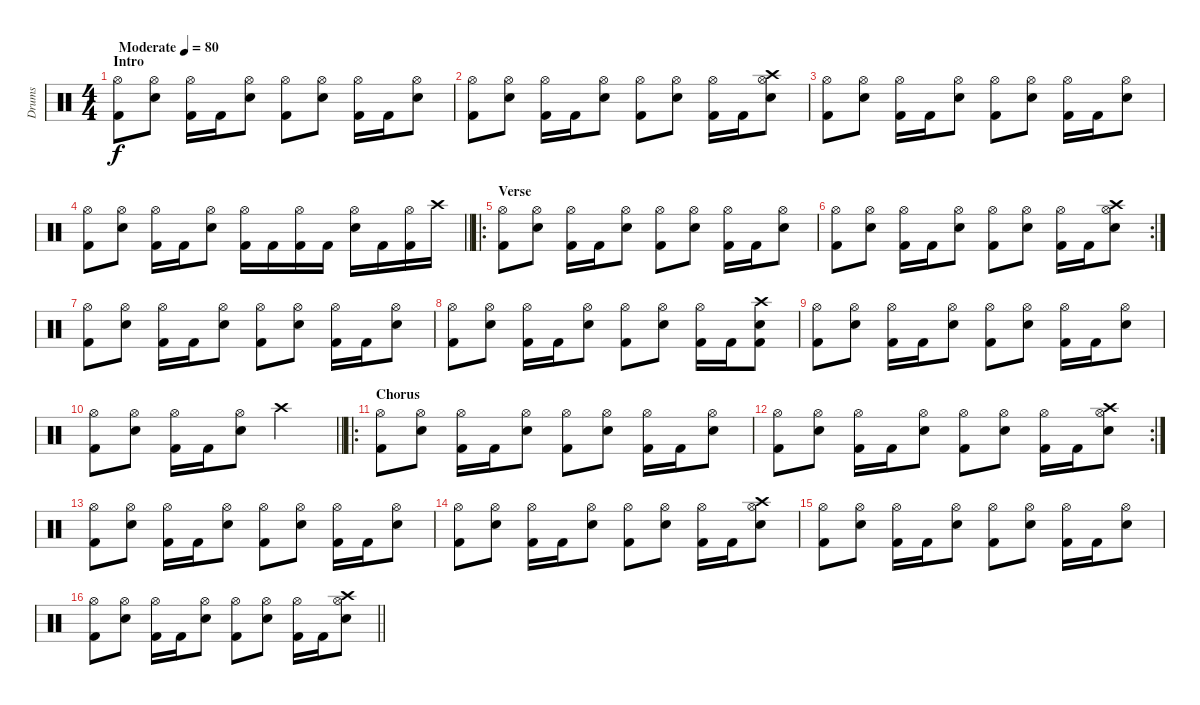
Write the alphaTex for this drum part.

\track ("Drums" "Drums") {instrument percussion}
\staff {score}
\articulation defaults
\ts (4 4)
\section ("" "Intro")
\tempo (80 "Moderate")
\clef neutral
\ks c
("Kick (hit) 2" "Hi-Hat (open)").8{dy f} ("Snare (hit) 2" "Hi-Hat (open)").8 ("Kick (hit) 2" "Hi-Hat (open)").16 "Kick (hit) 2".16 ("Snare (hit) 2" "Hi-Hat (open)").8 ("Kick (hit) 2" "Hi-Hat (open)").8 ("Snare (hit) 2" "Hi-Hat (open)").8 ("Kick (hit) 2" "Hi-Hat (open)").16 "Kick (hit) 2".16 ("Snare (hit) 2" "Hi-Hat (open)").8 |
("Kick (hit) 2" "Hi-Hat (open)").8 ("Snare (hit) 2" "Hi-Hat (open)").8 ("Kick (hit) 2" "Hi-Hat (open)").16 "Kick (hit) 2".16 ("Snare (hit) 2" "Hi-Hat (open)").8 ("Kick (hit) 2" "Hi-Hat (open)").8 ("Snare (hit) 2" "Hi-Hat (open)").8 ("Kick (hit) 2" "Hi-Hat (open)").16 "Kick (hit) 2".16 ("Snare (hit) 2" "Hi-Hat (open)" "Crash high (hit)").8 |
("Kick (hit) 2" "Hi-Hat (open)").8 ("Snare (hit) 2" "Hi-Hat (open)").8 ("Kick (hit) 2" "Hi-Hat (open)").16 "Kick (hit) 2".16 ("Snare (hit) 2" "Hi-Hat (open)").8 ("Kick (hit) 2" "Hi-Hat (open)").8 ("Snare (hit) 2" "Hi-Hat (open)").8 ("Kick (hit) 2" "Hi-Hat (open)").16 "Kick (hit) 2".16 ("Snare (hit) 2" "Hi-Hat (open)").8 |
\barLineRight lightlight
("Kick (hit) 2" "Hi-Hat (open)").8 ("Snare (hit) 2" "Hi-Hat (open)").8 ("Kick (hit) 2" "Hi-Hat (open)").16 "Kick (hit) 2".16 ("Snare (hit) 2" "Hi-Hat (open)").8 ("Kick (hit) 2" "Hi-Hat (open)").16 "Kick (hit) 2".16 ("Kick (hit) 2" "Hi-Hat (open)").16 "Kick (hit) 2".16 ("Snare (hit) 2" "Hi-Hat (open)").16 "Kick (hit) 2".16 ("Kick (hit) 2" "Hi-Hat (open)").16 "Crash high (hit)".16 |
\ro
\section ("" "Verse")
("Kick (hit) 2" "Hi-Hat (open)").8 ("Snare (hit) 2" "Hi-Hat (open)").8 ("Kick (hit) 2" "Hi-Hat (open)").16 "Kick (hit) 2".16 ("Snare (hit) 2" "Hi-Hat (open)").8 ("Kick (hit) 2" "Hi-Hat (open)").8 ("Snare (hit) 2" "Hi-Hat (open)").8 ("Kick (hit) 2" "Hi-Hat (open)").16 "Kick (hit) 2".16 ("Snare (hit) 2" "Hi-Hat (open)").8 |
\rc 2
("Kick (hit) 2" "Hi-Hat (open)").8 ("Snare (hit) 2" "Hi-Hat (open)").8 ("Kick (hit) 2" "Hi-Hat (open)").16 "Kick (hit) 2".16 ("Snare (hit) 2" "Hi-Hat (open)").8 ("Kick (hit) 2" "Hi-Hat (open)").8 ("Snare (hit) 2" "Hi-Hat (open)").8 ("Kick (hit) 2" "Hi-Hat (open)").16 "Kick (hit) 2".16 ("Snare (hit) 2" "Hi-Hat (open)" "Crash high (hit)").8 |
("Kick (hit) 2" "Hi-Hat (open)").8 ("Snare (hit) 2" "Hi-Hat (open)").8 ("Kick (hit) 2" "Hi-Hat (open)").16 "Kick (hit) 2".16 ("Snare (hit) 2" "Hi-Hat (open)").8 ("Kick (hit) 2" "Hi-Hat (open)").8 ("Snare (hit) 2" "Hi-Hat (open)").8 ("Kick (hit) 2" "Hi-Hat (open)").16 "Kick (hit) 2".16 ("Snare (hit) 2" "Hi-Hat (open)").8 |
("Kick (hit) 2" "Hi-Hat (open)").8 ("Snare (hit) 2" "Hi-Hat (open)").8 ("Kick (hit) 2" "Hi-Hat (open)").16 "Kick (hit) 2".16 ("Snare (hit) 2" "Hi-Hat (open)").8 ("Kick (hit) 2" "Hi-Hat (open)").8 ("Snare (hit) 2" "Hi-Hat (open)").8 ("Kick (hit) 2" "Hi-Hat (open)").16 "Kick (hit) 2".16 ("Snare (hit) 2" "Kick (hit) 2" "Crash high (hit)").8 |
("Kick (hit) 2" "Hi-Hat (open)").8 ("Snare (hit) 2" "Hi-Hat (open)").8 ("Kick (hit) 2" "Hi-Hat (open)").16 "Kick (hit) 2".16 ("Snare (hit) 2" "Hi-Hat (open)").8 ("Kick (hit) 2" "Hi-Hat (open)").8 ("Snare (hit) 2" "Hi-Hat (open)").8 ("Kick (hit) 2" "Hi-Hat (open)").16 "Kick (hit) 2".16 ("Snare (hit) 2" "Hi-Hat (open)").8 |
\barLineRight lightlight
("Kick (hit) 2" "Hi-Hat (open)").8 ("Snare (hit) 2" "Hi-Hat (open)").8 ("Kick (hit) 2" "Hi-Hat (open)").16 "Kick (hit) 2".16 ("Snare (hit) 2" "Hi-Hat (open)").8 "Crash high (hit)".2 |
\ro
\section ("" "Chorus")
("Kick (hit) 2" "Hi-Hat (open)").8 ("Snare (hit) 2" "Hi-Hat (open)").8 ("Kick (hit) 2" "Hi-Hat (open)").16 "Kick (hit) 2".16 ("Snare (hit) 2" "Hi-Hat (open)").8 ("Kick (hit) 2" "Hi-Hat (open)").8 ("Snare (hit) 2" "Hi-Hat (open)").8 ("Kick (hit) 2" "Hi-Hat (open)").16 "Kick (hit) 2".16 ("Snare (hit) 2" "Hi-Hat (open)").8 |
\rc 2
("Kick (hit) 2" "Hi-Hat (open)").8 ("Snare (hit) 2" "Hi-Hat (open)").8 ("Kick (hit) 2" "Hi-Hat (open)").16 "Kick (hit) 2".16 ("Snare (hit) 2" "Hi-Hat (open)").8 ("Kick (hit) 2" "Hi-Hat (open)").8 ("Snare (hit) 2" "Hi-Hat (open)").8 ("Kick (hit) 2" "Hi-Hat (open)").16 "Kick (hit) 2".16 ("Snare (hit) 2" "Hi-Hat (open)" "Crash high (hit)").8 |
("Kick (hit) 2" "Hi-Hat (open)").8 ("Snare (hit) 2" "Hi-Hat (open)").8 ("Kick (hit) 2" "Hi-Hat (open)").16 "Kick (hit) 2".16 ("Snare (hit) 2" "Hi-Hat (open)").8 ("Kick (hit) 2" "Hi-Hat (open)").8 ("Snare (hit) 2" "Hi-Hat (open)").8 ("Kick (hit) 2" "Hi-Hat (open)").16 "Kick (hit) 2".16 ("Snare (hit) 2" "Hi-Hat (open)").8 |
("Kick (hit) 2" "Hi-Hat (open)").8 ("Snare (hit) 2" "Hi-Hat (open)").8 ("Kick (hit) 2" "Hi-Hat (open)").16 "Kick (hit) 2".16 ("Snare (hit) 2" "Hi-Hat (open)").8 ("Kick (hit) 2" "Hi-Hat (open)").8 ("Snare (hit) 2" "Hi-Hat (open)").8 ("Kick (hit) 2" "Hi-Hat (open)").16 "Kick (hit) 2".16 ("Snare (hit) 2" "Hi-Hat (open)" "Crash high (hit)").8 |
("Kick (hit) 2" "Hi-Hat (open)").8 ("Snare (hit) 2" "Hi-Hat (open)").8 ("Kick (hit) 2" "Hi-Hat (open)").16 "Kick (hit) 2".16 ("Snare (hit) 2" "Hi-Hat (open)").8 ("Kick (hit) 2" "Hi-Hat (open)").8 ("Snare (hit) 2" "Hi-Hat (open)").8 ("Kick (hit) 2" "Hi-Hat (open)").16 "Kick (hit) 2".16 ("Snare (hit) 2" "Hi-Hat (open)").8 |
\barLineRight lightlight
("Kick (hit) 2" "Hi-Hat (open)").8 ("Snare (hit) 2" "Hi-Hat (open)").8 ("Kick (hit) 2" "Hi-Hat (open)").16 "Kick (hit) 2".16 ("Snare (hit) 2" "Hi-Hat (open)").8 ("Kick (hit) 2" "Hi-Hat (open)").8 ("Snare (hit) 2" "Hi-Hat (open)").8 ("Kick (hit) 2" "Hi-Hat (open)").16 "Kick (hit) 2".16 ("Snare (hit) 2" "Hi-Hat (open)" "Crash high (hit)").8
